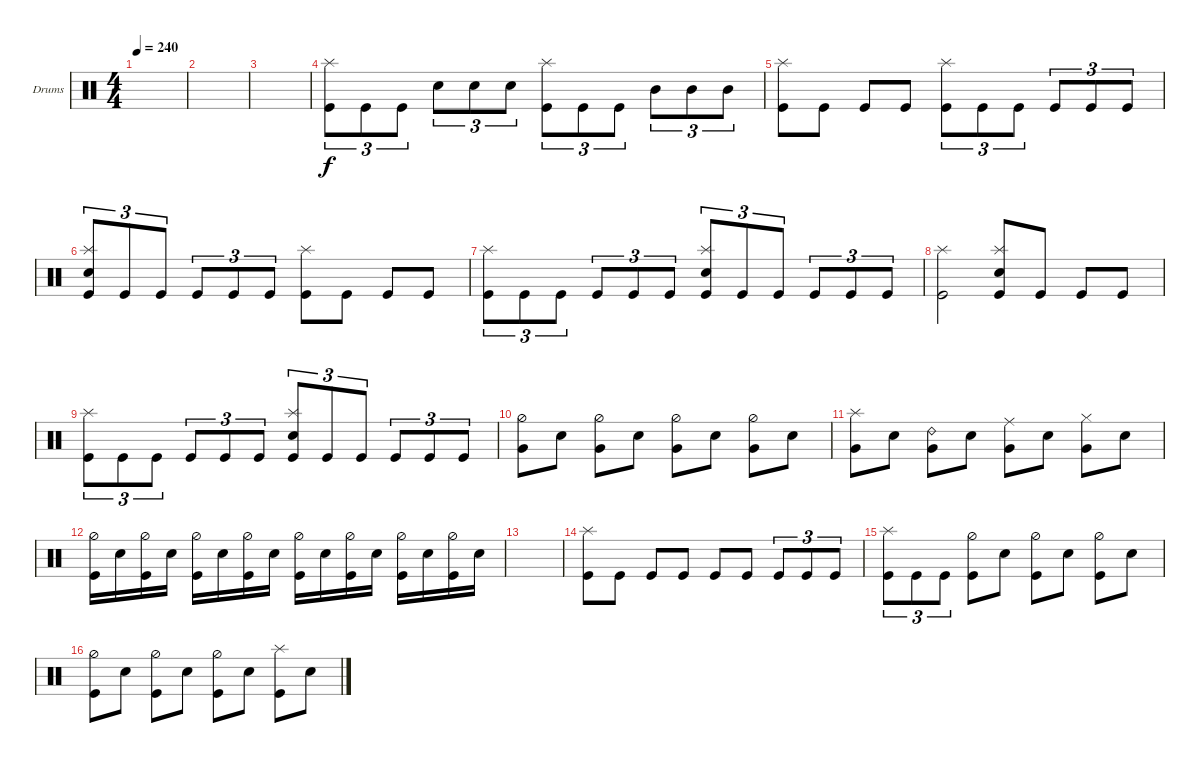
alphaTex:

\defaultSystemsLayout 4
\bracketExtendMode groupsimilarinstruments
\firstSystemTrackNameOrientation horizontal
\otherSystemsTrackNameOrientation horizontal
\track ("Drumkit" "Drums") {instrument percussion}
\staff {score}
\articulation defaults
\ts (4 4)
\tempo 240
\clef neutral
\ks c
|
|
|
("Kick (hit)" "Splash (hit)").8{tu (3 2)} "Kick (hit)".8{tu (3 2)} "Kick (hit)".8{tu (3 2)} "Snare (hit) 2".8{tu (3 2)} "Snare (hit) 2".8{tu (3 2)} "Snare (hit) 2".8{tu (3 2)} ("Kick (hit)" "Splash (hit)").8{tu (3 2)} "Kick (hit)".8{tu (3 2)} "Kick (hit)".8{tu (3 2)} "Mid Tom (hit)".8{tu (3 2)} "Mid Tom (hit)".8{tu (3 2)} "Mid Tom (hit)".8{tu (3 2)} |
("Splash (hit)" "Kick (hit)").8 "Kick (hit)".8 "Kick (hit)".8 "Kick (hit)".8 ("Kick (hit)" "Splash (hit)").8{tu (3 2)} "Kick (hit)".8{tu (3 2)} "Kick (hit)".8{tu (3 2)} "Kick (hit)".8{tu (3 2)} "Kick (hit)".8{tu (3 2)} "Kick (hit)".8{tu (3 2)} |
("Kick (hit)" "Splash (hit)" "Snare (hit) 2").8{tu (3 2)} "Kick (hit)".8{tu (3 2)} "Kick (hit)".8{tu (3 2)} "Kick (hit)".8{tu (3 2)} "Kick (hit)".8{tu (3 2)} "Kick (hit)".8{tu (3 2)} ("Kick (hit)" "Splash (hit)").8 "Kick (hit)".8 "Kick (hit)".8 "Kick (hit)".8 |
("Kick (hit)" "Splash (hit)").8{tu (3 2)} "Kick (hit)".8{tu (3 2)} "Kick (hit)".8{tu (3 2)} "Kick (hit)".8{tu (3 2)} "Kick (hit)".8{tu (3 2)} "Kick (hit)".8{tu (3 2)} ("Kick (hit)" "Splash (hit)" "Snare (hit) 2").8{tu (3 2)} "Kick (hit)".8{tu (3 2)} "Kick (hit)".8{tu (3 2)} "Kick (hit)".8{tu (3 2)} "Kick (hit)".8{tu (3 2)} "Kick (hit)".8{tu (3 2)} |
("Kick (hit)" "Splash (hit)").2 ("Kick (hit)" "Splash (hit)" "Snare (hit) 2").8 "Kick (hit)".8 "Kick (hit)".8 "Kick (hit)".8 |
("Kick (hit)" "Splash (hit)").8{tu (3 2)} "Kick (hit)".8{tu (3 2)} "Kick (hit)".8{tu (3 2)} "Kick (hit)".8{tu (3 2)} "Kick (hit)".8{tu (3 2)} "Kick (hit)".8{tu (3 2)} ("Kick (hit)" "Splash (hit)" "Snare (hit) 2").8{tu (3 2)} "Kick (hit)".8{tu (3 2)} "Kick (hit)".8{tu (3 2)} "Kick (hit)".8{tu (3 2)} "Kick (hit)".8{tu (3 2)} "Kick (hit)".8{tu (3 2)} |
("Very Low Tom (hit)" "Hi-Hat (half)").8 "Snare (hit) 2".8 ("Very Low Tom (hit)" "Hi-Hat (half)").8 "Snare (hit) 2".8 ("Very Low Tom (hit)" "Hi-Hat (half)").8 "Snare (hit) 2".8 ("Very Low Tom (hit)" "Hi-Hat (half)").8 "Snare (hit) 2".8 |
("Very Low Tom (hit)" "Splash (hit)").8 "Snare (hit) 2".8 ("Very Low Tom (hit)" "Ride (bell) 2").8 "Snare (hit) 2".8 ("Very Low Tom (hit)" "Ride (middle)").8 "Snare (hit) 2".8 ("Very Low Tom (hit)" "Hi-Hat (closed)").8 "Snare (hit) 2".8 |
("Hi-Hat (half)" "Kick (hit)").16 "Snare (hit) 2".16 ("Hi-Hat (half)" "Kick (hit)").16 "Snare (hit) 2".16 ("Hi-Hat (half)" "Kick (hit)").16 "Snare (hit) 2".16 ("Hi-Hat (half)" "Kick (hit)").16 "Snare (hit) 2".16 ("Hi-Hat (half)" "Kick (hit)").16 "Snare (hit) 2".16 ("Hi-Hat (half)" "Kick (hit)").16 "Snare (hit) 2".16 ("Hi-Hat (half)" "Kick (hit)").16 "Snare (hit) 2".16 ("Hi-Hat (half)" "Kick (hit)").16 "Snare (hit) 2".16 |
|
("Splash (hit)" "Kick (hit)").8 "Kick (hit)".8 "Kick (hit)".8 "Kick (hit)".8 "Kick (hit)".8 "Kick (hit)".8 "Kick (hit)".8{tu (3 2)} "Kick (hit)".8{tu (3 2)} "Kick (hit)".8{tu (3 2)} |
("Kick (hit)" "Splash (hit)").8{tu (3 2)} "Kick (hit)".8{tu (3 2)} "Kick (hit)".8{tu (3 2)} ("Hi-Hat (half)" "Kick (hit)").8 "Snare (hit) 2".8 ("Hi-Hat (half)" "Kick (hit)").8 "Snare (hit) 2".8 ("Hi-Hat (half)" "Kick (hit)").8 "Snare (hit) 2".8 |
("Hi-Hat (half)" "Kick (hit)").8 "Snare (hit) 2".8 ("Hi-Hat (half)" "Kick (hit)").8 "Snare (hit) 2".8 ("Hi-Hat (half)" "Kick (hit)").8 "Snare (hit) 2".8 ("Kick (hit)" "Splash (hit)").8 "Snare (hit) 2".8
